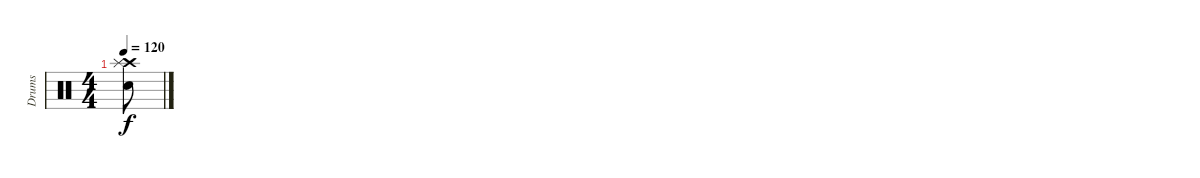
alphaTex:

\track ("Drums" "Drums") {instrument percussion}
\staff {score}
\articulation defaults
\ts (4 4)
\tempo 120
\clef neutral
\ks c
("Crash high (hit)" "Splash (hit)" "Electric Snare (hit)").8{dy f}
